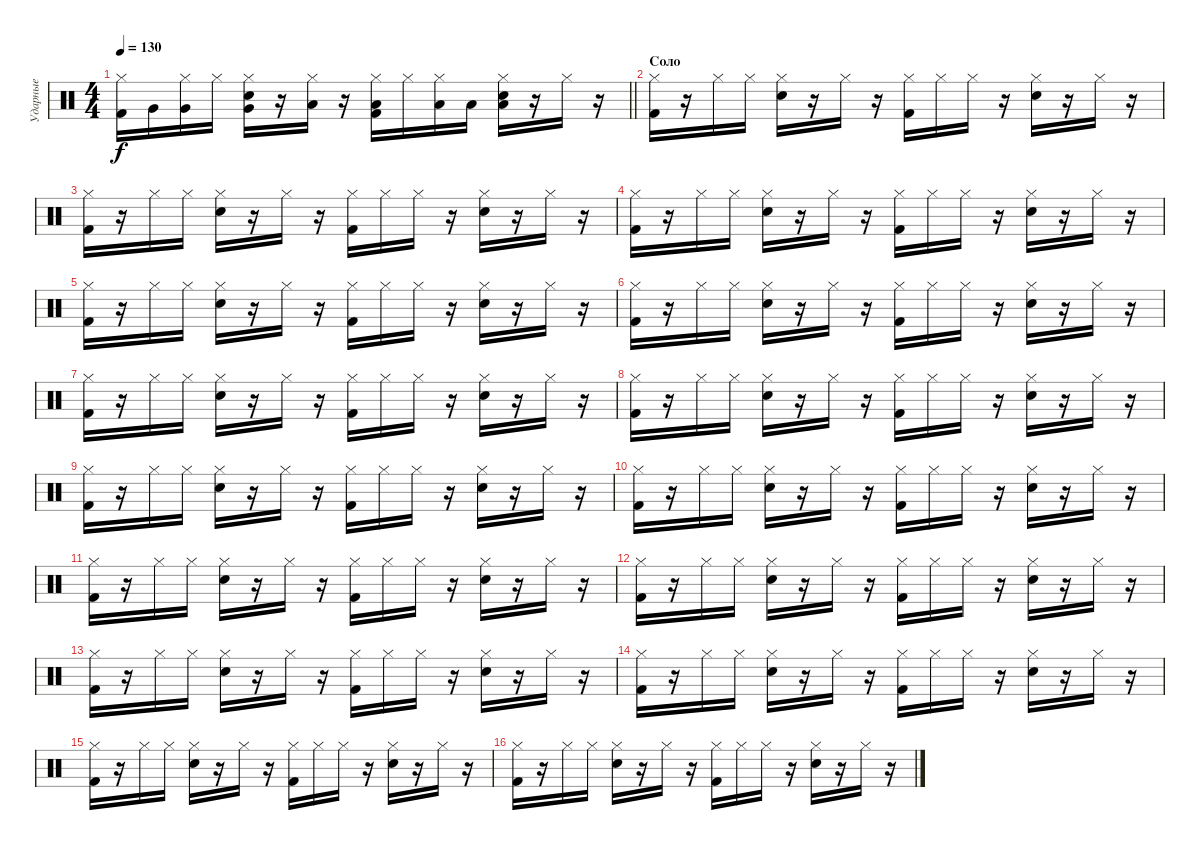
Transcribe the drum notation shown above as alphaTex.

\track ("Ударные" "Ударные") {instrument percussion}
\staff {score}
\articulation defaults
\ts (4 4)
\tempo 130
\clef neutral
\barLineRight lightlight
\ks c
("Kick (hit) 2" "Hi-Hat (closed)").16{dy f} "Very Low Tom (hit)".16 ("Very Low Tom (hit)" "Hi-Hat (closed)").16 "Hi-Hat (closed)".16 ("Snare (hit) 2" "Very Low Tom (hit)" "Hi-Hat (closed)").16 r.16 ("Low Tom (hit)" "Hi-Hat (closed)").16 r.16 ("Kick (hit) 2" "Low Tom (hit)" "Hi-Hat (closed)").16 "Hi-Hat (closed)".16 ("Low Tom (hit)" "Hi-Hat (closed)").16 "Low Tom (hit)".16 ("Snare (hit) 2" "Low Tom (hit)" "Hi-Hat (closed)").16 r.16 "Hi-Hat (closed)".16 r.16 |
\section ("" "Соло")
("Kick (hit) 2" "Hi-Hat (closed)").16 r.16 "Hi-Hat (closed)".16 "Hi-Hat (closed)".16 ("Snare (hit) 2" "Hi-Hat (closed)").16 r.16 "Hi-Hat (closed)".16 r.16 ("Kick (hit) 2" "Hi-Hat (closed)").16 "Hi-Hat (closed)".16 "Hi-Hat (closed)".16 r.16 ("Snare (hit) 2" "Hi-Hat (closed)").16 r.16 "Hi-Hat (closed)".16 r.16 |
("Kick (hit) 2" "Hi-Hat (closed)").16 r.16 "Hi-Hat (closed)".16 "Hi-Hat (closed)".16 ("Snare (hit) 2" "Hi-Hat (closed)").16 r.16 "Hi-Hat (closed)".16 r.16 ("Kick (hit) 2" "Hi-Hat (closed)").16 "Hi-Hat (closed)".16 "Hi-Hat (closed)".16 r.16 ("Snare (hit) 2" "Hi-Hat (closed)").16 r.16 "Hi-Hat (closed)".16 r.16 |
("Kick (hit) 2" "Hi-Hat (closed)").16 r.16 "Hi-Hat (closed)".16 "Hi-Hat (closed)".16 ("Snare (hit) 2" "Hi-Hat (closed)").16 r.16 "Hi-Hat (closed)".16 r.16 ("Kick (hit) 2" "Hi-Hat (closed)").16 "Hi-Hat (closed)".16 "Hi-Hat (closed)".16 r.16 ("Snare (hit) 2" "Hi-Hat (closed)").16 r.16 "Hi-Hat (closed)".16 r.16 |
("Kick (hit) 2" "Hi-Hat (closed)").16 r.16 "Hi-Hat (closed)".16 "Hi-Hat (closed)".16 ("Snare (hit) 2" "Hi-Hat (closed)").16 r.16 "Hi-Hat (closed)".16 r.16 ("Kick (hit) 2" "Hi-Hat (closed)").16 "Hi-Hat (closed)".16 "Hi-Hat (closed)".16 r.16 ("Snare (hit) 2" "Hi-Hat (closed)").16 r.16 "Hi-Hat (closed)".16 r.16 |
("Kick (hit) 2" "Hi-Hat (closed)").16 r.16 "Hi-Hat (closed)".16 "Hi-Hat (closed)".16 ("Snare (hit) 2" "Hi-Hat (closed)").16 r.16 "Hi-Hat (closed)".16 r.16 ("Kick (hit) 2" "Hi-Hat (closed)").16 "Hi-Hat (closed)".16 "Hi-Hat (closed)".16 r.16 ("Snare (hit) 2" "Hi-Hat (closed)").16 r.16 "Hi-Hat (closed)".16 r.16 |
("Kick (hit) 2" "Hi-Hat (closed)").16 r.16 "Hi-Hat (closed)".16 "Hi-Hat (closed)".16 ("Snare (hit) 2" "Hi-Hat (closed)").16 r.16 "Hi-Hat (closed)".16 r.16 ("Kick (hit) 2" "Hi-Hat (closed)").16 "Hi-Hat (closed)".16 "Hi-Hat (closed)".16 r.16 ("Snare (hit) 2" "Hi-Hat (closed)").16 r.16 "Hi-Hat (closed)".16 r.16 |
("Kick (hit) 2" "Hi-Hat (closed)").16 r.16 "Hi-Hat (closed)".16 "Hi-Hat (closed)".16 ("Snare (hit) 2" "Hi-Hat (closed)").16 r.16 "Hi-Hat (closed)".16 r.16 ("Kick (hit) 2" "Hi-Hat (closed)").16 "Hi-Hat (closed)".16 "Hi-Hat (closed)".16 r.16 ("Snare (hit) 2" "Hi-Hat (closed)").16 r.16 "Hi-Hat (closed)".16 r.16 |
("Kick (hit) 2" "Hi-Hat (closed)").16 r.16 "Hi-Hat (closed)".16 "Hi-Hat (closed)".16 ("Snare (hit) 2" "Hi-Hat (closed)").16 r.16 "Hi-Hat (closed)".16 r.16 ("Kick (hit) 2" "Hi-Hat (closed)").16 "Hi-Hat (closed)".16 "Hi-Hat (closed)".16 r.16 ("Snare (hit) 2" "Hi-Hat (closed)").16 r.16 "Hi-Hat (closed)".16 r.16 |
("Kick (hit) 2" "Hi-Hat (closed)").16 r.16 "Hi-Hat (closed)".16 "Hi-Hat (closed)".16 ("Snare (hit) 2" "Hi-Hat (closed)").16 r.16 "Hi-Hat (closed)".16 r.16 ("Kick (hit) 2" "Hi-Hat (closed)").16 "Hi-Hat (closed)".16 "Hi-Hat (closed)".16 r.16 ("Snare (hit) 2" "Hi-Hat (closed)").16 r.16 "Hi-Hat (closed)".16 r.16 |
("Kick (hit) 2" "Hi-Hat (closed)").16 r.16 "Hi-Hat (closed)".16 "Hi-Hat (closed)".16 ("Snare (hit) 2" "Hi-Hat (closed)").16 r.16 "Hi-Hat (closed)".16 r.16 ("Kick (hit) 2" "Hi-Hat (closed)").16 "Hi-Hat (closed)".16 "Hi-Hat (closed)".16 r.16 ("Snare (hit) 2" "Hi-Hat (closed)").16 r.16 "Hi-Hat (closed)".16 r.16 |
("Kick (hit) 2" "Hi-Hat (closed)").16 r.16 "Hi-Hat (closed)".16 "Hi-Hat (closed)".16 ("Snare (hit) 2" "Hi-Hat (closed)").16 r.16 "Hi-Hat (closed)".16 r.16 ("Kick (hit) 2" "Hi-Hat (closed)").16 "Hi-Hat (closed)".16 "Hi-Hat (closed)".16 r.16 ("Snare (hit) 2" "Hi-Hat (closed)").16 r.16 "Hi-Hat (closed)".16 r.16 |
("Kick (hit) 2" "Hi-Hat (closed)").16 r.16 "Hi-Hat (closed)".16 "Hi-Hat (closed)".16 ("Snare (hit) 2" "Hi-Hat (closed)").16 r.16 "Hi-Hat (closed)".16 r.16 ("Kick (hit) 2" "Hi-Hat (closed)").16 "Hi-Hat (closed)".16 "Hi-Hat (closed)".16 r.16 ("Snare (hit) 2" "Hi-Hat (closed)").16 r.16 "Hi-Hat (closed)".16 r.16 |
("Kick (hit) 2" "Hi-Hat (closed)").16 r.16 "Hi-Hat (closed)".16 "Hi-Hat (closed)".16 ("Snare (hit) 2" "Hi-Hat (closed)").16 r.16 "Hi-Hat (closed)".16 r.16 ("Kick (hit) 2" "Hi-Hat (closed)").16 "Hi-Hat (closed)".16 "Hi-Hat (closed)".16 r.16 ("Snare (hit) 2" "Hi-Hat (closed)").16 r.16 "Hi-Hat (closed)".16 r.16 |
("Kick (hit) 2" "Hi-Hat (closed)").16 r.16 "Hi-Hat (closed)".16 "Hi-Hat (closed)".16 ("Snare (hit) 2" "Hi-Hat (closed)").16 r.16 "Hi-Hat (closed)".16 r.16 ("Kick (hit) 2" "Hi-Hat (closed)").16 "Hi-Hat (closed)".16 "Hi-Hat (closed)".16 r.16 ("Snare (hit) 2" "Hi-Hat (closed)").16 r.16 "Hi-Hat (closed)".16 r.16 |
("Kick (hit) 2" "Hi-Hat (closed)").16 r.16 "Hi-Hat (closed)".16 "Hi-Hat (closed)".16 ("Snare (hit) 2" "Hi-Hat (closed)").16 r.16 "Hi-Hat (closed)".16 r.16 ("Kick (hit) 2" "Hi-Hat (closed)").16 "Hi-Hat (closed)".16 "Hi-Hat (closed)".16 r.16 ("Snare (hit) 2" "Hi-Hat (closed)").16 r.16 "Hi-Hat (closed)".16 r.16
